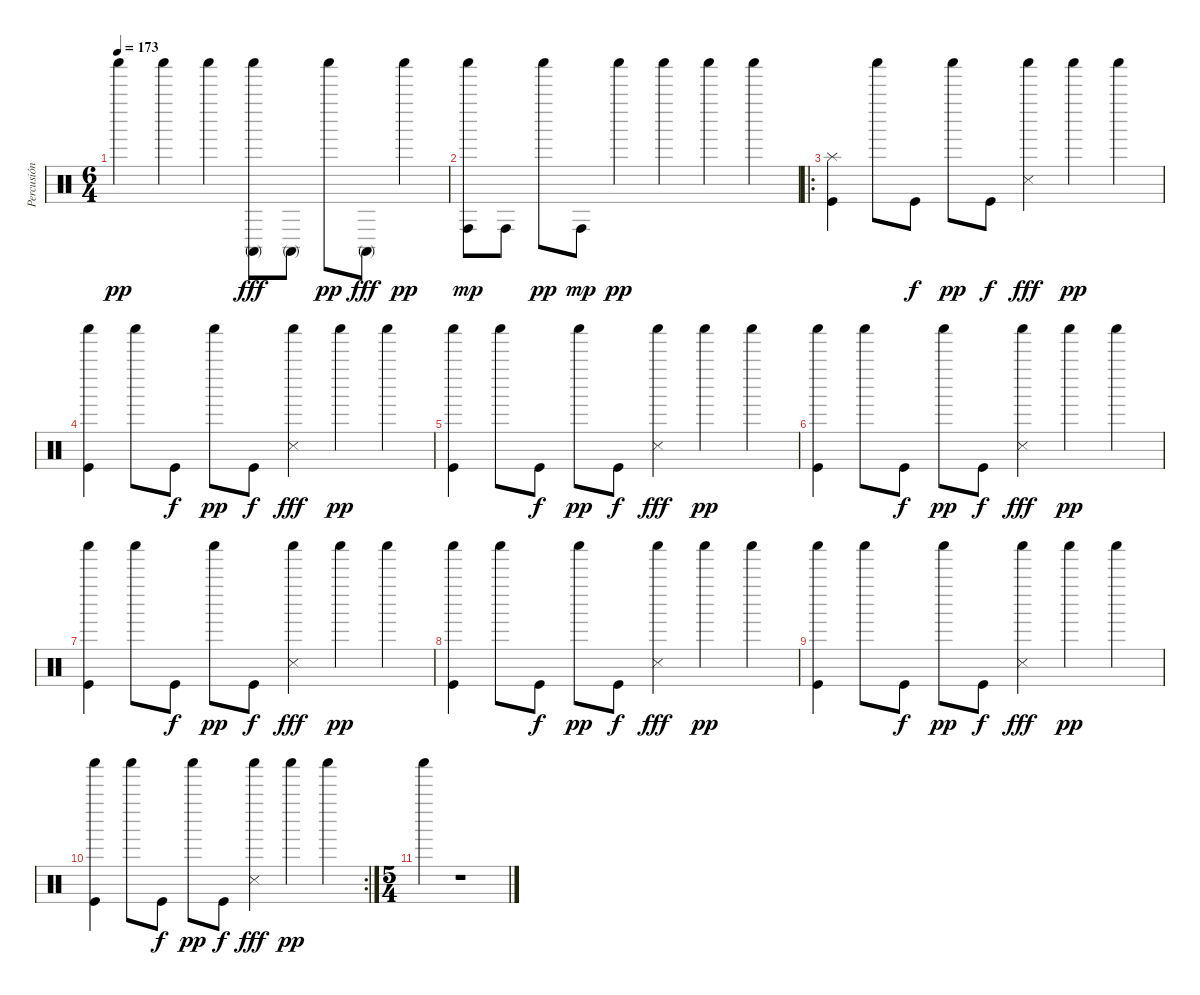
\track ("Percusión" "Percusión") {instrument percussion}
\staff {score}
\articulation defaults
\ts (6 4)
\tempo 173
\clef neutral
\ks c "Shaker (hit)".4{dy pp} "Shaker (hit)".4 "Shaker (hit)".4
("Shaker (hit)" "Conga high (mute)").8{dy fff} "Conga high (mute)".8 "Shaker (hit)".8{dy pp} "Conga high (mute)".8{dy fff} "Shaker (hit)".4{dy pp} |
("Shaker (hit)" "Conga high (hit)").8{dy mp} "Conga high (hit)".8 "Shaker (hit)".8{dy pp} "Conga high (hit)".8{dy mp} "Shaker (hit)".4{dy pp} "Shaker (hit)".4 "Shaker (hit)".4 "Shaker (hit)".4 |
\ro
("Splash (hit)" "Kick (hit)").4 "Shaker (hit)".8 "Kick (hit)".8{dy f} "Shaker (hit)".8{dy pp} "Kick (hit)".8{dy f} ("Shaker (hit)" "Snare (side stick) 3").4{dy fff} "Shaker (hit)".4{dy pp} "Shaker (hit)".4 |
("Shaker (hit)" "Kick (hit)").4 "Shaker (hit)".8 "Kick (hit)".8{dy f} "Shaker (hit)".8{dy pp} "Kick (hit)".8{dy f} ("Shaker (hit)" "Snare (side stick) 3").4{dy fff} "Shaker (hit)".4{dy pp} "Shaker (hit)".4 |
("Shaker (hit)" "Kick (hit)").4 "Shaker (hit)".8 "Kick (hit)".8{dy f} "Shaker (hit)".8{dy pp} "Kick (hit)".8{dy f} ("Shaker (hit)" "Snare (side stick) 3").4{dy fff} "Shaker (hit)".4{dy pp} "Shaker (hit)".4 |
("Shaker (hit)" "Kick (hit)").4 "Shaker (hit)".8 "Kick (hit)".8{dy f} "Shaker (hit)".8{dy pp} "Kick (hit)".8{dy f} ("Shaker (hit)" "Snare (side stick) 3").4{dy fff} "Shaker (hit)".4{dy pp} "Shaker (hit)".4 |
("Shaker (hit)" "Kick (hit)").4 "Shaker (hit)".8 "Kick (hit)".8{dy f} "Shaker (hit)".8{dy pp} "Kick (hit)".8{dy f} ("Shaker (hit)" "Snare (side stick) 3").4{dy fff} "Shaker (hit)".4{dy pp} "Shaker (hit)".4 |
("Shaker (hit)" "Kick (hit)").4 "Shaker (hit)".8 "Kick (hit)".8{dy f} "Shaker (hit)".8{dy pp} "Kick (hit)".8{dy f} ("Shaker (hit)" "Snare (side stick) 3").4{dy fff} "Shaker (hit)".4{dy pp} "Shaker (hit)".4 |
("Shaker (hit)" "Kick (hit)").4 "Shaker (hit)".8 "Kick (hit)".8{dy f} "Shaker (hit)".8{dy pp} "Kick (hit)".8{dy f} ("Shaker (hit)" "Snare (side stick) 3").4{dy fff} "Shaker (hit)".4{dy pp} "Shaker (hit)".4 |
\rc 2
("Shaker (hit)" "Kick (hit)").4 "Shaker (hit)".8 "Kick (hit)".8{dy f} "Shaker (hit)".8{dy pp} "Kick (hit)".8{dy f} ("Shaker (hit)" "Snare (side stick) 3").4{dy fff} "Shaker (hit)".4{dy pp} "Shaker (hit)".4 |
\ts (5 4)
"Shaker (hit)".4 r.1
